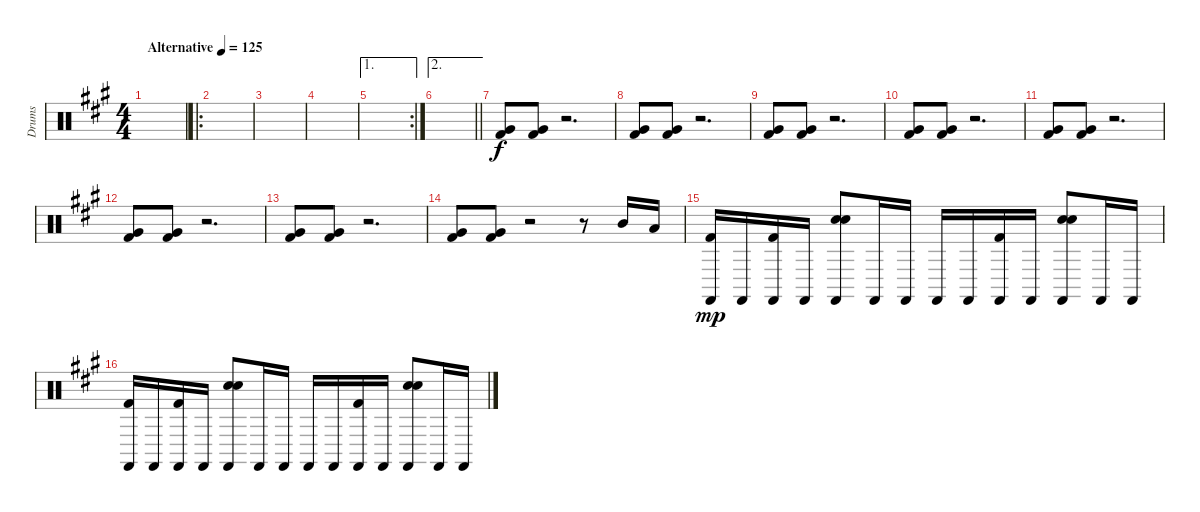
\track ("Drums" "Drums") {instrument percussion}
\staff {score}
\articulation defaults
\ts (4 4)
\tempo (125 "Alternative")
\clef neutral
\ks a
|
\ro
|
|
|
\ae 1
\rc 2
|
\ae 2
\barLineRight lightlight
|
("Very Low Tom (hit)" "Kick (hit) 2").8 ("Very Low Tom (hit)" "Kick (hit) 2").8 r.2{d} |
("Very Low Tom (hit)" "Kick (hit) 2").8 ("Very Low Tom (hit)" "Kick (hit) 2").8 r.2{d} |
("Very Low Tom (hit)" "Kick (hit) 2").8 ("Very Low Tom (hit)" "Kick (hit) 2").8 r.2{d} |
("Very Low Tom (hit)" "Kick (hit) 2").8 ("Very Low Tom (hit)" "Kick (hit) 2").8 r.2{d} |
("Very Low Tom (hit)" "Kick (hit) 2").8 ("Very Low Tom (hit)" "Kick (hit) 2").8 r.2{d} |
("Very Low Tom (hit)" "Kick (hit) 2").8 ("Very Low Tom (hit)" "Kick (hit) 2").8 r.2{d} |
("Very Low Tom (hit)" "Kick (hit) 2").8 ("Very Low Tom (hit)" "Kick (hit) 2").8 r.2{d} |
("Very Low Tom (hit)" "Kick (hit) 2").8 ("Very Low Tom (hit)" "Kick (hit) 2").8 r.2 r.8 "Mid Tom (hit)".16 "Low Tom (hit)".16 |
("Castanets (hit)" "Kick (hit) 2").16{dy mp} "Castanets (hit)".16 ("Castanets (hit)" "Kick (hit) 2").16 "Castanets (hit)".16 ("Castanets (hit)" "Hand Clap (hit)" "Snare (hit) 2").8 "Castanets (hit)".16 "Castanets (hit)".16 "Castanets (hit)".16 "Castanets (hit)".16 ("Castanets (hit)" "Kick (hit) 2").16 "Castanets (hit)".16 ("Castanets (hit)" "Hand Clap (hit)" "Snare (hit) 2").8 "Castanets (hit)".16 "Castanets (hit)".16 |
("Castanets (hit)" "Kick (hit) 2").16 "Castanets (hit)".16 ("Castanets (hit)" "Kick (hit) 2").16 "Castanets (hit)".16 ("Castanets (hit)" "Hand Clap (hit)" "Snare (hit) 2").8 "Castanets (hit)".16 "Castanets (hit)".16 "Castanets (hit)".16 "Castanets (hit)".16 ("Castanets (hit)" "Kick (hit) 2").16 "Castanets (hit)".16 ("Castanets (hit)" "Hand Clap (hit)" "Snare (hit) 2").8 "Castanets (hit)".16 "Castanets (hit)".16
